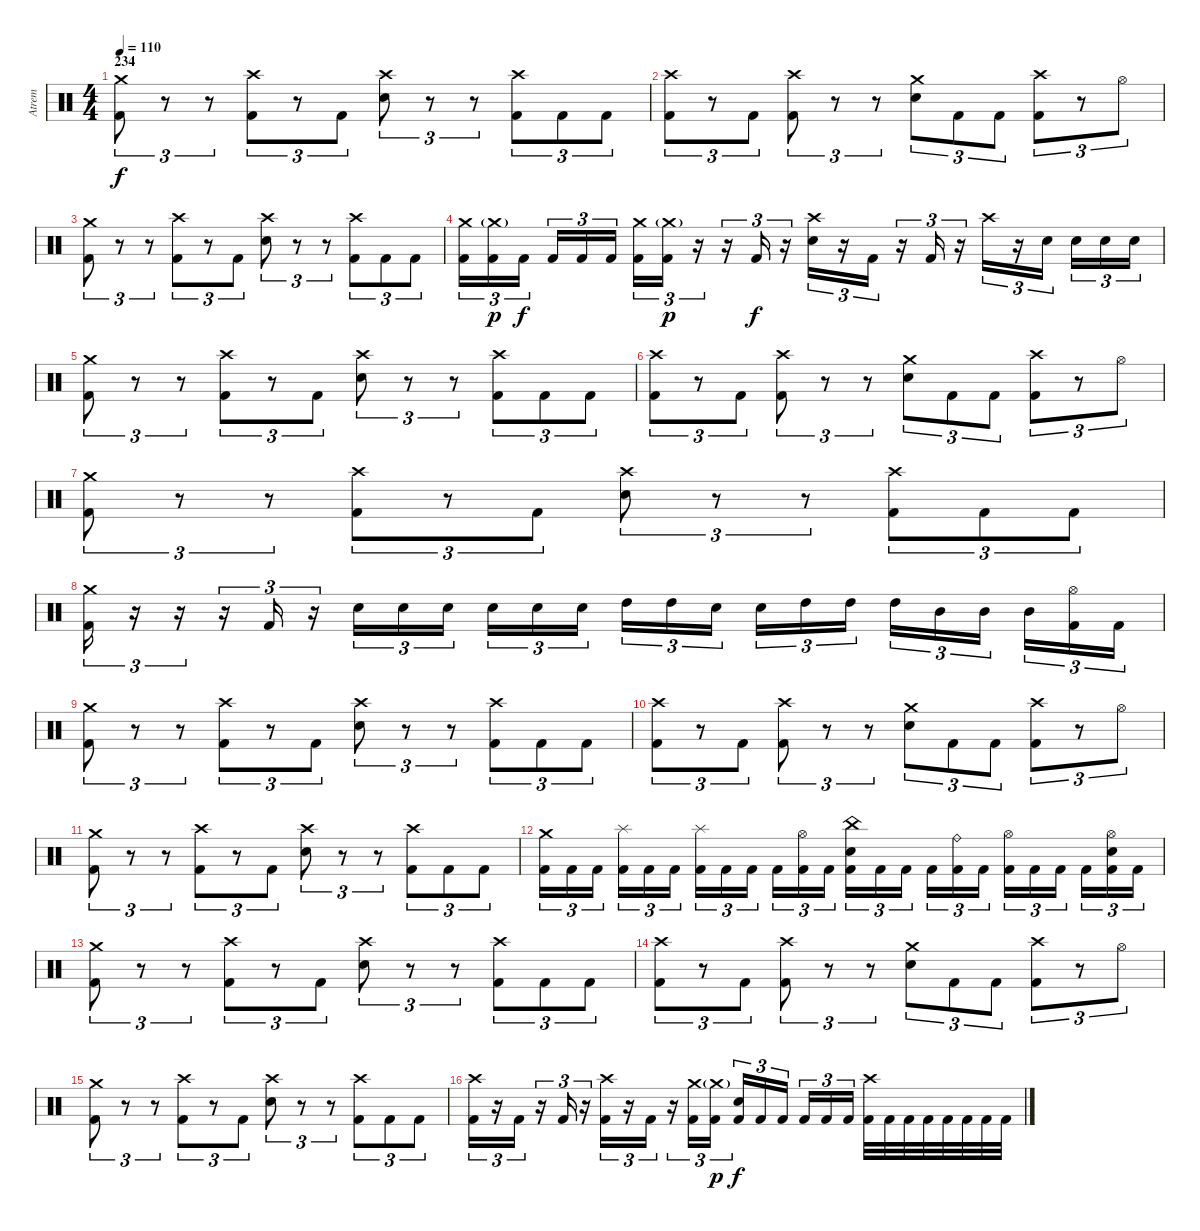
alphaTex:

\track ("Atrem" "Atrem") {instrument percussion}
\staff {score}
\articulation defaults
\ts (4 4)
\section ("" "234")
\tempo 110
\clef neutral
\ks c
("Kick (hit) 2" "Crash medium (hit)").8{tu (3 2) dy f} r.8{tu (3 2)} r.8{tu (3 2)} ("Kick (hit) 2" "Crash high (hit)").8{tu (3 2)} r.8{tu (3 2)} "Kick (hit) 2".8{tu (3 2)} ("Electric Snare (hit)" "Crash high (hit)").8{tu (3 2)} r.8{tu (3 2)} r.8{tu (3 2)} ("Kick (hit) 2" "Crash high (hit)").8{tu (3 2)} "Kick (hit) 2".8{tu (3 2)} "Kick (hit) 2".8{tu (3 2)} |
("Kick (hit) 2" "Crash high (hit)").8{tu (3 2)} r.8{tu (3 2)} "Kick (hit) 2".8{tu (3 2)} ("Kick (hit) 2" "Crash high (hit)").8{tu (3 2)} r.8{tu (3 2)} r.8{tu (3 2)} ("Electric Snare (hit)" "Crash medium (hit)").8{tu (3 2)} "Kick (hit) 2".8{tu (3 2)} "Kick (hit) 2".8{tu (3 2)} ("Kick (hit) 2" "Crash high (hit)").8{tu (3 2)} r.8{tu (3 2)} "Hi-Hat (open)".8{tu (3 2)} |
("Kick (hit) 2" "Crash medium (hit)").8{tu (3 2)} r.8{tu (3 2)} r.8{tu (3 2)} ("Kick (hit) 2" "Crash high (hit)").8{tu (3 2)} r.8{tu (3 2)} "Kick (hit) 2".8{tu (3 2)} ("Electric Snare (hit)" "Crash high (hit)").8{tu (3 2)} r.8{tu (3 2)} r.8{tu (3 2)} ("Kick (hit) 2" "Crash high (hit)").8{tu (3 2)} "Kick (hit) 2".8{tu (3 2)} "Kick (hit) 2".8{tu (3 2)} |
("Kick (hit) 2" "Crash medium (hit)").16{tu (3 2)} ("Kick (hit) 2" "Crash medium (hit)"{g}).16{tu (3 2) dy p} "Kick (hit) 2".16{tu (3 2) dy f beam splitsecondary} "Kick (hit) 2".16{tu (3 2)} "Kick (hit) 2".16{tu (3 2)} "Kick (hit) 2".16{tu (3 2)} ("Crash medium (hit)" "Kick (hit) 2").16{tu (3 2)} ("Crash medium (hit)"{g} "Kick (hit) 2").16{tu (3 2) dy p} r.16{tu (3 2)} r.16{tu (3 2)} "Kick (hit) 2".16{tu (3 2) dy f} r.16{tu (3 2)} ("Electric Snare (hit)" "Crash high (hit)").16{tu (3 2)} r.16{tu (3 2)} "Kick (hit) 2".16{tu (3 2)} r.16{tu (3 2)} "Kick (hit) 2".16{tu (3 2)} r.16{tu (3 2)} "Crash high (hit)".16{tu (3 2)} r.16{tu (3 2)} "Electric Snare (hit)".16{tu (3 2) beam splitsecondary} "Electric Snare (hit)".16{tu (3 2)} "Electric Snare (hit)".16{tu (3 2)} "Electric Snare (hit)".16{tu (3 2)} |
("Kick (hit) 2" "Crash medium (hit)").8{tu (3 2)} r.8{tu (3 2)} r.8{tu (3 2)} ("Kick (hit) 2" "Crash high (hit)").8{tu (3 2)} r.8{tu (3 2)} "Kick (hit) 2".8{tu (3 2)} ("Electric Snare (hit)" "Crash high (hit)").8{tu (3 2)} r.8{tu (3 2)} r.8{tu (3 2)} ("Kick (hit) 2" "Crash high (hit)").8{tu (3 2)} "Kick (hit) 2".8{tu (3 2)} "Kick (hit) 2".8{tu (3 2)} |
("Kick (hit) 2" "Crash high (hit)").8{tu (3 2)} r.8{tu (3 2)} "Kick (hit) 2".8{tu (3 2)} ("Kick (hit) 2" "Crash high (hit)").8{tu (3 2)} r.8{tu (3 2)} r.8{tu (3 2)} ("Electric Snare (hit)" "Crash medium (hit)").8{tu (3 2)} "Kick (hit) 2".8{tu (3 2)} "Kick (hit) 2".8{tu (3 2)} ("Kick (hit) 2" "Crash high (hit)").8{tu (3 2)} r.8{tu (3 2)} "Hi-Hat (open)".8{tu (3 2)} |
("Kick (hit) 2" "Crash medium (hit)").8{tu (3 2)} r.8{tu (3 2)} r.8{tu (3 2)} ("Kick (hit) 2" "Crash high (hit)").8{tu (3 2)} r.8{tu (3 2)} "Kick (hit) 2".8{tu (3 2)} ("Electric Snare (hit)" "Crash high (hit)").8{tu (3 2)} r.8{tu (3 2)} r.8{tu (3 2)} ("Kick (hit) 2" "Crash high (hit)").8{tu (3 2)} "Kick (hit) 2".8{tu (3 2)} "Kick (hit) 2".8{tu (3 2)} |
("Kick (hit) 2" "Crash medium (hit)").16{tu (3 2)} r.16{tu (3 2)} r.16{tu (3 2)} r.16{tu (3 2)} "Kick (hit) 2".16{tu (3 2)} r.16{tu (3 2)} "Electric Snare (hit)".16{tu (3 2)} "Electric Snare (hit)".16{tu (3 2)} "Electric Snare (hit)".16{tu (3 2) beam splitsecondary} "Electric Snare (hit)".16{tu (3 2)} "Electric Snare (hit)".16{tu (3 2)} "Electric Snare (hit)".16{tu (3 2)} "High Tom (hit)".16{tu (3 2)} "High Tom (hit)".16{tu (3 2)} "Electric Snare (hit)".16{tu (3 2) beam splitsecondary} "Electric Snare (hit)".16{tu (3 2)} "High Tom (hit)".16{tu (3 2)} "High Tom (hit)".16{tu (3 2)} "High Tom (hit)".16{tu (3 2)} "Mid Tom (hit)".16{tu (3 2)} "Mid Tom (hit)".16{tu (3 2) beam splitsecondary} "Mid Tom (hit)".16{tu (3 2)} ("Kick (hit) 2" "Hi-Hat (open)").16{tu (3 2)} "Kick (hit) 2".16{tu (3 2)} |
("Kick (hit) 2" "Crash medium (hit)").8{tu (3 2)} r.8{tu (3 2)} r.8{tu (3 2)} ("Kick (hit) 2" "Crash high (hit)").8{tu (3 2)} r.8{tu (3 2)} "Kick (hit) 2".8{tu (3 2)} ("Electric Snare (hit)" "Crash high (hit)").8{tu (3 2)} r.8{tu (3 2)} r.8{tu (3 2)} ("Kick (hit) 2" "Crash high (hit)").8{tu (3 2)} "Kick (hit) 2".8{tu (3 2)} "Kick (hit) 2".8{tu (3 2)} |
("Kick (hit) 2" "Crash high (hit)").8{tu (3 2)} r.8{tu (3 2)} "Kick (hit) 2".8{tu (3 2)} ("Kick (hit) 2" "Crash high (hit)").8{tu (3 2)} r.8{tu (3 2)} r.8{tu (3 2)} ("Electric Snare (hit)" "Crash medium (hit)").8{tu (3 2)} "Kick (hit) 2".8{tu (3 2)} "Kick (hit) 2".8{tu (3 2)} ("Kick (hit) 2" "Crash high (hit)").8{tu (3 2)} r.8{tu (3 2)} "Hi-Hat (open)".8{tu (3 2)} |
("Kick (hit) 2" "Crash medium (hit)").8{tu (3 2)} r.8{tu (3 2)} r.8{tu (3 2)} ("Kick (hit) 2" "Crash high (hit)").8{tu (3 2)} r.8{tu (3 2)} "Kick (hit) 2".8{tu (3 2)} ("Electric Snare (hit)" "Crash high (hit)").8{tu (3 2)} r.8{tu (3 2)} r.8{tu (3 2)} ("Kick (hit) 2" "Crash high (hit)").8{tu (3 2)} "Kick (hit) 2".8{tu (3 2)} "Kick (hit) 2".8{tu (3 2)} |
("Kick (hit) 2" "Crash medium (hit)").16{tu (3 2)} "Kick (hit) 2".16{tu (3 2)} "Kick (hit) 2".16{tu (3 2) beam splitsecondary} ("Kick (hit) 2" "Splash (hit)").16{tu (3 2)} "Kick (hit) 2".16{tu (3 2)} "Kick (hit) 2".16{tu (3 2)} ("Kick (hit) 2" "Splash (hit)").16{tu (3 2)} "Kick (hit) 2".16{tu (3 2)} "Kick (hit) 2".16{tu (3 2) beam splitsecondary} "Kick (hit) 2".16{tu (3 2)} ("Kick (hit) 2" "Hi-Hat (open)").16{tu (3 2)} "Kick (hit) 2".16{tu (3 2)} ("Kick (hit) 2" "China (hit)" "Electric Snare (hit)").16{tu (3 2)} "Kick (hit) 2".16{tu (3 2)} "Kick (hit) 2".16{tu (3 2) beam splitsecondary} "Kick (hit) 2".16{tu (3 2)} ("Kick (hit) 2" "Ride (bell)").16{tu (3 2)} "Kick (hit) 2".16{tu (3 2)} ("Kick (hit) 2" "Hi-Hat (open)").16{tu (3 2)} "Kick (hit) 2".16{tu (3 2)} "Kick (hit) 2".16{tu (3 2) beam splitsecondary} "Kick (hit) 2".16{tu (3 2)} ("Kick (hit) 2" "Electric Snare (hit)" "Hi-Hat (open)").16{tu (3 2)} "Kick (hit) 2".16{tu (3 2)} |
("Kick (hit) 2" "Crash medium (hit)").8{tu (3 2)} r.8{tu (3 2)} r.8{tu (3 2)} ("Kick (hit) 2" "Crash high (hit)").8{tu (3 2)} r.8{tu (3 2)} "Kick (hit) 2".8{tu (3 2)} ("Electric Snare (hit)" "Crash high (hit)").8{tu (3 2)} r.8{tu (3 2)} r.8{tu (3 2)} ("Kick (hit) 2" "Crash high (hit)").8{tu (3 2)} "Kick (hit) 2".8{tu (3 2)} "Kick (hit) 2".8{tu (3 2)} |
("Kick (hit) 2" "Crash high (hit)").8{tu (3 2)} r.8{tu (3 2)} "Kick (hit) 2".8{tu (3 2)} ("Kick (hit) 2" "Crash high (hit)").8{tu (3 2)} r.8{tu (3 2)} r.8{tu (3 2)} ("Electric Snare (hit)" "Crash medium (hit)").8{tu (3 2)} "Kick (hit) 2".8{tu (3 2)} "Kick (hit) 2".8{tu (3 2)} ("Kick (hit) 2" "Crash high (hit)").8{tu (3 2)} r.8{tu (3 2)} "Hi-Hat (open)".8{tu (3 2)} |
("Kick (hit) 2" "Crash medium (hit)").8{tu (3 2)} r.8{tu (3 2)} r.8{tu (3 2)} ("Kick (hit) 2" "Crash high (hit)").8{tu (3 2)} r.8{tu (3 2)} "Kick (hit) 2".8{tu (3 2)} ("Electric Snare (hit)" "Crash high (hit)").8{tu (3 2)} r.8{tu (3 2)} r.8{tu (3 2)} ("Kick (hit) 2" "Crash high (hit)").8{tu (3 2)} "Kick (hit) 2".8{tu (3 2)} "Kick (hit) 2".8{tu (3 2)} |
("Kick (hit) 2" "Crash high (hit)").16{tu (3 2)} r.16{tu (3 2)} "Kick (hit) 2".16{tu (3 2)} r.16{tu (3 2)} "Kick (hit) 2".16{tu (3 2)} r.16{tu (3 2)} ("Kick (hit) 2" "Crash high (hit)").16{tu (3 2)} r.16{tu (3 2)} "Kick (hit) 2".16{tu (3 2)} r.16{tu (3 2)} ("Kick (hit) 2" "Crash medium (hit)").16{tu (3 2)} ("Kick (hit) 2" "Crash medium (hit)"{g}).16{tu (3 2) dy p} ("Kick (hit) 2" "Electric Snare (hit)").16{tu (3 2) dy f} "Kick (hit) 2".16{tu (3 2)} "Kick (hit) 2".16{tu (3 2) beam splitsecondary} "Kick (hit) 2".16{tu (3 2)} "Kick (hit) 2".16{tu (3 2)} "Kick (hit) 2".16{tu (3 2)} ("Kick (hit) 2" "Crash high (hit)").32 "Kick (hit) 2".32 "Kick (hit) 2".32 "Kick (hit) 2".32 "Kick (hit) 2".32 "Kick (hit) 2".32 "Kick (hit) 2".32 "Kick (hit) 2".32
